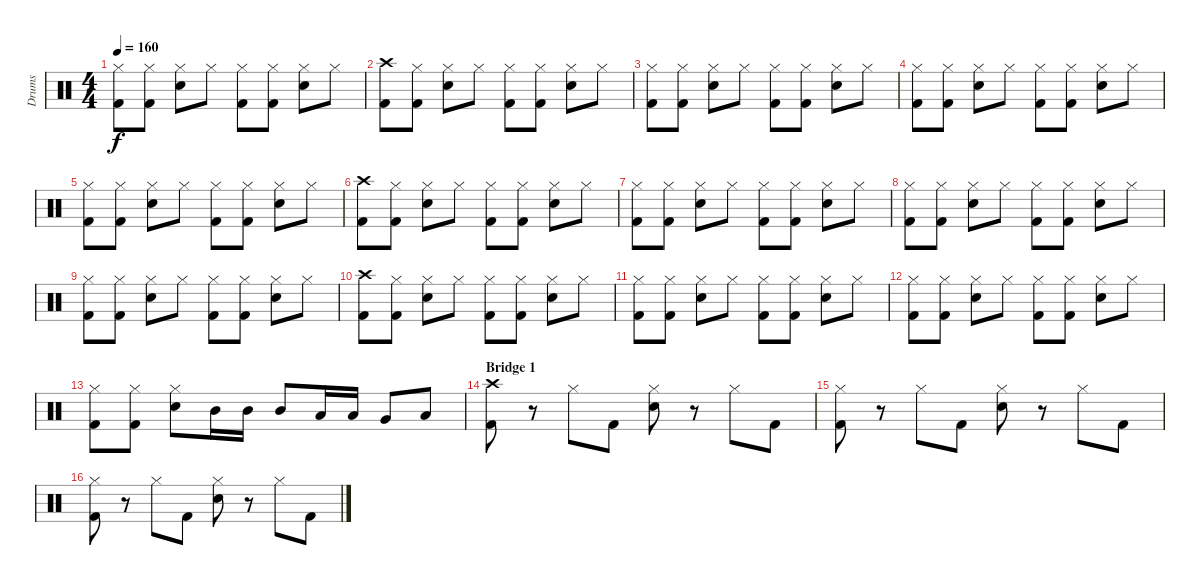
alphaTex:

\track ("Drums" "Drums") {instrument percussion}
\staff {score}
\articulation defaults
\ts (4 4)
\tempo 160
\clef neutral
\ks c
("Hi-Hat (closed)" "Kick (hit) 2").8{dy f} ("Hi-Hat (closed)" "Kick (hit) 2").8 ("Hi-Hat (closed)" "Electric Snare (hit)").8 "Hi-Hat (closed)".8 ("Hi-Hat (closed)" "Kick (hit) 2").8 ("Hi-Hat (closed)" "Kick (hit) 2").8 ("Hi-Hat (closed)" "Electric Snare (hit)").8 "Hi-Hat (closed)".8 |
("Crash high (hit)" "Kick (hit) 2").8 ("Hi-Hat (closed)" "Kick (hit) 2").8 ("Hi-Hat (closed)" "Electric Snare (hit)").8 "Hi-Hat (closed)".8 ("Hi-Hat (closed)" "Kick (hit) 2").8 ("Hi-Hat (closed)" "Kick (hit) 2").8 ("Hi-Hat (closed)" "Electric Snare (hit)").8 "Hi-Hat (closed)".8 |
("Hi-Hat (closed)" "Kick (hit) 2").8 ("Hi-Hat (closed)" "Kick (hit) 2").8 ("Hi-Hat (closed)" "Electric Snare (hit)").8 "Hi-Hat (closed)".8 ("Hi-Hat (closed)" "Kick (hit) 2").8 ("Hi-Hat (closed)" "Kick (hit) 2").8 ("Hi-Hat (closed)" "Electric Snare (hit)").8 "Hi-Hat (closed)".8 |
("Hi-Hat (closed)" "Kick (hit) 2").8 ("Hi-Hat (closed)" "Kick (hit) 2").8 ("Hi-Hat (closed)" "Electric Snare (hit)").8 "Hi-Hat (closed)".8 ("Hi-Hat (closed)" "Kick (hit) 2").8 ("Hi-Hat (closed)" "Kick (hit) 2").8 ("Hi-Hat (closed)" "Electric Snare (hit)").8 "Hi-Hat (closed)".8 |
("Hi-Hat (closed)" "Kick (hit) 2").8 ("Hi-Hat (closed)" "Kick (hit) 2").8 ("Hi-Hat (closed)" "Electric Snare (hit)").8 "Hi-Hat (closed)".8 ("Hi-Hat (closed)" "Kick (hit) 2").8 ("Hi-Hat (closed)" "Kick (hit) 2").8 ("Hi-Hat (closed)" "Electric Snare (hit)").8 "Hi-Hat (closed)".8 |
("Crash high (hit)" "Kick (hit) 2").8 ("Hi-Hat (closed)" "Kick (hit) 2").8 ("Hi-Hat (closed)" "Electric Snare (hit)").8 "Hi-Hat (closed)".8 ("Hi-Hat (closed)" "Kick (hit) 2").8 ("Hi-Hat (closed)" "Kick (hit) 2").8 ("Hi-Hat (closed)" "Electric Snare (hit)").8 "Hi-Hat (closed)".8 |
("Hi-Hat (closed)" "Kick (hit) 2").8 ("Hi-Hat (closed)" "Kick (hit) 2").8 ("Hi-Hat (closed)" "Electric Snare (hit)").8 "Hi-Hat (closed)".8 ("Hi-Hat (closed)" "Kick (hit) 2").8 ("Hi-Hat (closed)" "Kick (hit) 2").8 ("Hi-Hat (closed)" "Electric Snare (hit)").8 "Hi-Hat (closed)".8 |
("Hi-Hat (closed)" "Kick (hit) 2").8 ("Hi-Hat (closed)" "Kick (hit) 2").8 ("Hi-Hat (closed)" "Electric Snare (hit)").8 "Hi-Hat (closed)".8 ("Hi-Hat (closed)" "Kick (hit) 2").8 ("Hi-Hat (closed)" "Kick (hit) 2").8 ("Hi-Hat (closed)" "Electric Snare (hit)").8 "Hi-Hat (closed)".8 |
("Hi-Hat (closed)" "Kick (hit) 2").8 ("Hi-Hat (closed)" "Kick (hit) 2").8 ("Hi-Hat (closed)" "Electric Snare (hit)").8 "Hi-Hat (closed)".8 ("Hi-Hat (closed)" "Kick (hit) 2").8 ("Hi-Hat (closed)" "Kick (hit) 2").8 ("Hi-Hat (closed)" "Electric Snare (hit)").8 "Hi-Hat (closed)".8 |
("Crash high (hit)" "Kick (hit) 2").8 ("Hi-Hat (closed)" "Kick (hit) 2").8 ("Hi-Hat (closed)" "Electric Snare (hit)").8 "Hi-Hat (closed)".8 ("Hi-Hat (closed)" "Kick (hit) 2").8 ("Hi-Hat (closed)" "Kick (hit) 2").8 ("Hi-Hat (closed)" "Electric Snare (hit)").8 "Hi-Hat (closed)".8 |
("Hi-Hat (closed)" "Kick (hit) 2").8 ("Hi-Hat (closed)" "Kick (hit) 2").8 ("Hi-Hat (closed)" "Electric Snare (hit)").8 "Hi-Hat (closed)".8 ("Hi-Hat (closed)" "Kick (hit) 2").8 ("Hi-Hat (closed)" "Kick (hit) 2").8 ("Hi-Hat (closed)" "Electric Snare (hit)").8 "Hi-Hat (closed)".8 |
("Hi-Hat (closed)" "Kick (hit) 2").8 ("Hi-Hat (closed)" "Kick (hit) 2").8 ("Hi-Hat (closed)" "Electric Snare (hit)").8 "Hi-Hat (closed)".8 ("Hi-Hat (closed)" "Kick (hit) 2").8 ("Hi-Hat (closed)" "Kick (hit) 2").8 ("Hi-Hat (closed)" "Electric Snare (hit)").8 "Hi-Hat (closed)".8 |
("Hi-Hat (closed)" "Kick (hit) 2").8 ("Hi-Hat (closed)" "Kick (hit) 2").8 ("Hi-Hat (closed)" "Electric Snare (hit)").8 "Mid Tom (hit)".16 "Mid Tom (hit)".16 "Mid Tom (hit)".8 "Low Tom (hit)".16 "Low Tom (hit)".16 "Very Low Tom (hit)".8 "Low Floor Tom (hit)".8 |
\section ("" "Bridge 1")
("Crash high (hit)" "Kick (hit) 2").8 r.8 "Hi-Hat (closed)".8 "Kick (hit) 2".8 ("Hi-Hat (closed)" "Electric Snare (hit)").8 r.8 "Hi-Hat (closed)".8 "Kick (hit) 2".8 |
("Hi-Hat (closed)" "Kick (hit) 2").8 r.8 "Hi-Hat (closed)".8 "Kick (hit) 2".8 ("Hi-Hat (closed)" "Electric Snare (hit)").8 r.8 "Hi-Hat (closed)".8 "Kick (hit) 2".8 |
("Hi-Hat (closed)" "Kick (hit) 2").8 r.8 "Hi-Hat (closed)".8 "Kick (hit) 2".8 ("Hi-Hat (closed)" "Electric Snare (hit)").8 r.8 "Hi-Hat (closed)".8 "Kick (hit) 2".8
